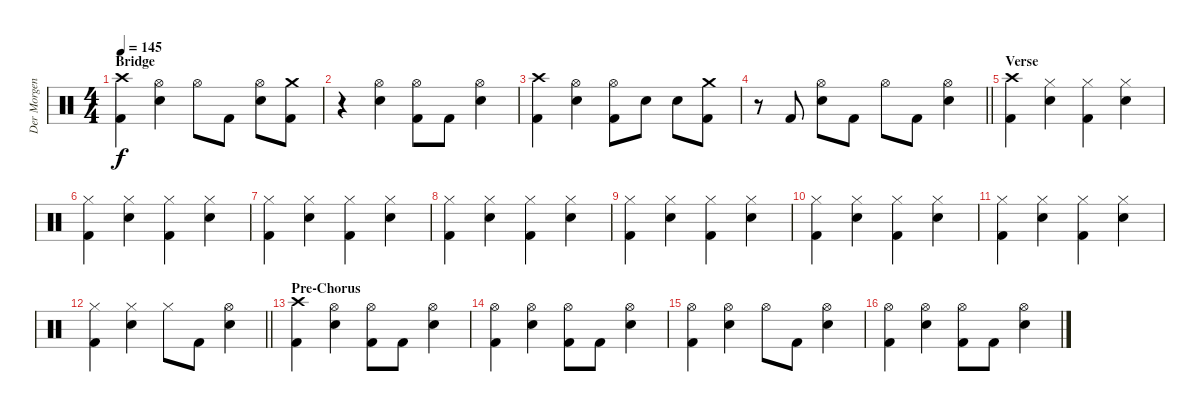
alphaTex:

\track ("Der Morgenstern" "Der Morgen") {instrument percussion}
\staff {score}
\articulation defaults
\ts (4 4)
\section ("" "Bridge")
\tempo 145
\clef neutral
\ks c
("Crash high (hit)" "Kick (hit) 2").4{dy f} ("Hi-Hat (open)" "Electric Snare (hit)").4 "Hi-Hat (open)".8 "Kick (hit) 2".8 ("Hi-Hat (open)" "Electric Snare (hit)").8 ("Crash medium (hit)" "Kick (hit) 2").8 |
r.4 ("Hi-Hat (open)" "Electric Snare (hit)").4 ("Hi-Hat (open)" "Kick (hit) 2").8 "Kick (hit) 2".8 ("Hi-Hat (open)" "Electric Snare (hit)").4 |
("Crash high (hit)" "Kick (hit) 2").4 ("Hi-Hat (open)" "Electric Snare (hit)").4 ("Hi-Hat (open)" "Kick (hit) 2").8 "Electric Snare (hit)".8 "Electric Snare (hit)".8 ("Crash medium (hit)" "Kick (hit) 2").8 |
\barLineRight lightlight
r.8 "Kick (hit) 2".8 ("Hi-Hat (open)" "Electric Snare (hit)").8 "Kick (hit) 2".8 "Hi-Hat (open)".8 "Kick (hit) 2".8 ("Hi-Hat (open)" "Electric Snare (hit)").4 |
\section ("" "Verse")
("Crash high (hit)" "Kick (hit) 2").4 ("Hi-Hat (closed)" "Electric Snare (hit)").4 ("Hi-Hat (closed)" "Kick (hit) 2").4 ("Hi-Hat (closed)" "Electric Snare (hit)").4 |
("Hi-Hat (closed)" "Kick (hit) 2").4 ("Hi-Hat (closed)" "Electric Snare (hit)").4 ("Hi-Hat (closed)" "Kick (hit) 2").4 ("Hi-Hat (closed)" "Electric Snare (hit)").4 |
("Hi-Hat (closed)" "Kick (hit) 2").4 ("Hi-Hat (closed)" "Electric Snare (hit)").4 ("Hi-Hat (closed)" "Kick (hit) 2").4 ("Hi-Hat (closed)" "Electric Snare (hit)").4 |
("Hi-Hat (closed)" "Kick (hit) 2").4 ("Hi-Hat (closed)" "Electric Snare (hit)").4 ("Hi-Hat (closed)" "Kick (hit) 2").4 ("Hi-Hat (closed)" "Electric Snare (hit)").4 |
("Hi-Hat (closed)" "Kick (hit) 2").4 ("Hi-Hat (closed)" "Electric Snare (hit)").4 ("Hi-Hat (closed)" "Kick (hit) 2").4 ("Hi-Hat (closed)" "Electric Snare (hit)").4 |
("Hi-Hat (closed)" "Kick (hit) 2").4 ("Hi-Hat (closed)" "Electric Snare (hit)").4 ("Hi-Hat (closed)" "Kick (hit) 2").4 ("Hi-Hat (closed)" "Electric Snare (hit)").4 |
("Hi-Hat (closed)" "Kick (hit) 2").4 ("Hi-Hat (closed)" "Electric Snare (hit)").4 ("Hi-Hat (closed)" "Kick (hit) 2").4 ("Hi-Hat (closed)" "Electric Snare (hit)").4 |
\barLineRight lightlight
("Hi-Hat (closed)" "Kick (hit) 2").4 ("Hi-Hat (closed)" "Electric Snare (hit)").4 "Hi-Hat (closed)".8 "Kick (hit) 2".8 ("Hi-Hat (open)" "Electric Snare (hit)").4 |
\section ("" "Pre-Chorus")
("Crash high (hit)" "Kick (hit) 2").4 ("Hi-Hat (open)" "Electric Snare (hit)").4 ("Hi-Hat (open)" "Kick (hit) 2").8 "Kick (hit) 2".8 ("Hi-Hat (open)" "Electric Snare (hit)").4 |
("Hi-Hat (open)" "Kick (hit) 2").4 ("Hi-Hat (open)" "Electric Snare (hit)").4 ("Hi-Hat (open)" "Kick (hit) 2").8 "Kick (hit) 2".8 ("Hi-Hat (open)" "Electric Snare (hit)").4 |
("Hi-Hat (open)" "Kick (hit) 2").4 ("Hi-Hat (open)" "Electric Snare (hit)").4 "Hi-Hat (open)".8 "Kick (hit) 2".8 ("Hi-Hat (open)" "Electric Snare (hit)").4 |
("Hi-Hat (open)" "Kick (hit) 2").4 ("Hi-Hat (open)" "Electric Snare (hit)").4 ("Hi-Hat (open)" "Kick (hit) 2").8 "Kick (hit) 2".8 ("Hi-Hat (open)" "Electric Snare (hit)").4
